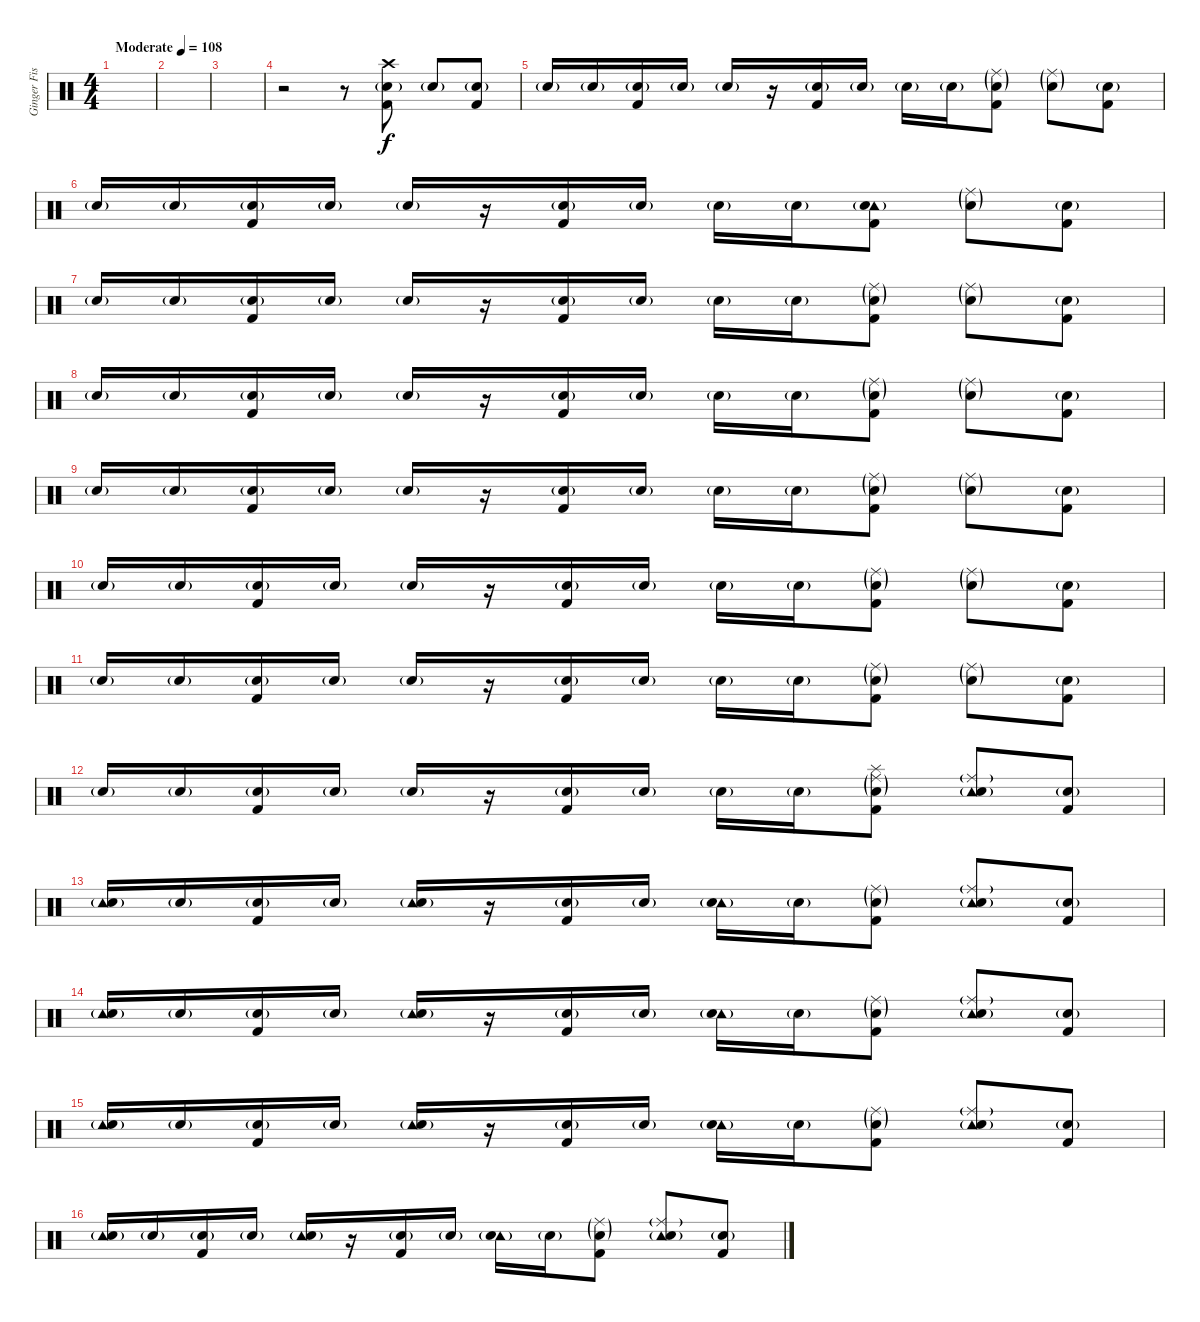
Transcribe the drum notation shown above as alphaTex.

\track ("Ginger Fish" "Ginger Fis") {instrument percussion}
\staff {score}
\articulation defaults
\ts (4 4)
\tempo (108 "Moderate")
\clef neutral
\ks c
|
|
|
r.2 r.8 ("Crash high (hit)" "Electric Snare (hit)"{g} "Kick (hit) 2").8 "Electric Snare (hit)"{g}.8 ("Snare (hit) 2"{g} "Kick (hit) 2").8 |
"Electric Snare (hit)"{g}.16 "Electric Snare (hit)"{g}.16 ("Electric Snare (hit)"{g} "Kick (hit) 2").16 "Electric Snare (hit)"{g}.16 "Electric Snare (hit)"{g}.16 r.16 ("Electric Snare (hit)"{g} "Kick (hit) 2").16 "Electric Snare (hit)"{g}.16 "Electric Snare (hit)"{g}.16 "Electric Snare (hit)"{g}.16 ("Ride (middle)"{g} "Electric Snare (hit)"{g} "Kick (hit) 2").8 ("Ride (middle)"{g} "Electric Snare (hit)"{g}).8 ("Snare (hit) 2"{g} "Kick (hit) 2").8 |
"Electric Snare (hit)"{g}.16 "Electric Snare (hit)"{g}.16 ("Electric Snare (hit)"{g} "Kick (hit) 2").16 "Electric Snare (hit)"{g}.16 "Electric Snare (hit)"{g}.16 r.16 ("Electric Snare (hit)"{g} "Kick (hit) 2").16 "Electric Snare (hit)"{g}.16 "Electric Snare (hit)"{g}.16 "Electric Snare (hit)"{g}.16 ("Tambourine (hit)"{g} "Electric Snare (hit)"{g} "Kick (hit) 2").8 ("Ride (middle)"{g} "Electric Snare (hit)"{g}).8 ("Snare (hit) 2"{g} "Kick (hit) 2").8 |
"Electric Snare (hit)"{g}.16 "Electric Snare (hit)"{g}.16 ("Electric Snare (hit)"{g} "Kick (hit) 2").16 "Electric Snare (hit)"{g}.16 "Electric Snare (hit)"{g}.16 r.16 ("Electric Snare (hit)"{g} "Kick (hit) 2").16 "Electric Snare (hit)"{g}.16 "Electric Snare (hit)"{g}.16 "Electric Snare (hit)"{g}.16 ("Ride (middle)"{g} "Electric Snare (hit)"{g} "Kick (hit) 2").8 ("Ride (middle)"{g} "Electric Snare (hit)"{g}).8 ("Snare (hit) 2"{g} "Kick (hit) 2").8 |
"Electric Snare (hit)"{g}.16 "Electric Snare (hit)"{g}.16 ("Electric Snare (hit)"{g} "Kick (hit) 2").16 "Electric Snare (hit)"{g}.16 "Electric Snare (hit)"{g}.16 r.16 ("Electric Snare (hit)"{g} "Kick (hit) 2").16 "Electric Snare (hit)"{g}.16 "Electric Snare (hit)"{g}.16 "Electric Snare (hit)"{g}.16 ("Ride (middle)"{g} "Electric Snare (hit)"{g} "Kick (hit) 2").8 ("Ride (middle)"{g} "Electric Snare (hit)"{g}).8 ("Snare (hit) 2"{g} "Kick (hit) 2").8 |
"Electric Snare (hit)"{g}.16 "Electric Snare (hit)"{g}.16 ("Electric Snare (hit)"{g} "Kick (hit) 2").16 "Electric Snare (hit)"{g}.16 "Electric Snare (hit)"{g}.16 r.16 ("Electric Snare (hit)"{g} "Kick (hit) 2").16 "Electric Snare (hit)"{g}.16 "Electric Snare (hit)"{g}.16 "Electric Snare (hit)"{g}.16 ("Ride (middle)"{g} "Electric Snare (hit)"{g} "Kick (hit) 2").8 ("Ride (middle)"{g} "Electric Snare (hit)"{g}).8 ("Snare (hit) 2"{g} "Kick (hit) 2").8 |
"Electric Snare (hit)"{g}.16 "Electric Snare (hit)"{g}.16 ("Electric Snare (hit)"{g} "Kick (hit) 2").16 "Electric Snare (hit)"{g}.16 "Electric Snare (hit)"{g}.16 r.16 ("Electric Snare (hit)"{g} "Kick (hit) 2").16 "Electric Snare (hit)"{g}.16 "Electric Snare (hit)"{g}.16 "Electric Snare (hit)"{g}.16 ("Ride (middle)"{g} "Electric Snare (hit)"{g} "Kick (hit) 2").8 ("Ride (middle)"{g} "Electric Snare (hit)"{g}).8 ("Snare (hit) 2"{g} "Kick (hit) 2").8 |
"Electric Snare (hit)"{g}.16 "Electric Snare (hit)"{g}.16 ("Electric Snare (hit)"{g} "Kick (hit) 2").16 "Electric Snare (hit)"{g}.16 "Electric Snare (hit)"{g}.16 r.16 ("Electric Snare (hit)"{g} "Kick (hit) 2").16 "Electric Snare (hit)"{g}.16 "Electric Snare (hit)"{g}.16 "Electric Snare (hit)"{g}.16 ("Ride (middle)"{g} "Electric Snare (hit)"{g} "Kick (hit) 2").8 ("Ride (middle)"{g} "Electric Snare (hit)"{g}).8 ("Snare (hit) 2"{g} "Kick (hit) 2").8 |
"Electric Snare (hit)"{g}.16 "Electric Snare (hit)"{g}.16 ("Electric Snare (hit)"{g} "Kick (hit) 2").16 "Electric Snare (hit)"{g}.16 "Electric Snare (hit)"{g}.16 r.16 ("Electric Snare (hit)"{g} "Kick (hit) 2").16 "Electric Snare (hit)"{g}.16 "Electric Snare (hit)"{g}.16 "Electric Snare (hit)"{g}.16 ("Splash (hit)" "Ride (middle)"{g} "Electric Snare (hit)"{g} "Kick (hit) 2").8 ("Tambourine (hit)" "Ride (middle)"{g} "Electric Snare (hit)"{g}).8 ("Snare (hit) 2"{g} "Kick (hit) 2").8 |
("Tambourine (hit)" "Electric Snare (hit)"{g}).16 "Electric Snare (hit)"{g}.16 ("Electric Snare (hit)"{g} "Kick (hit) 2").16 "Electric Snare (hit)"{g}.16 ("Tambourine (hit)" "Electric Snare (hit)"{g}).16 r.16 ("Electric Snare (hit)"{g} "Kick (hit) 2").16 "Electric Snare (hit)"{g}.16 ("Tambourine (hit)" "Electric Snare (hit)"{g}).16 "Electric Snare (hit)"{g}.16 ("Ride (middle)"{g} "Electric Snare (hit)"{g} "Kick (hit) 2").8 ("Tambourine (hit)" "Ride (middle)"{g} "Electric Snare (hit)"{g}).8 ("Snare (hit) 2"{g} "Kick (hit) 2").8 |
("Tambourine (hit)" "Electric Snare (hit)"{g}).16 "Electric Snare (hit)"{g}.16 ("Electric Snare (hit)"{g} "Kick (hit) 2").16 "Electric Snare (hit)"{g}.16 ("Tambourine (hit)" "Electric Snare (hit)"{g}).16 r.16 ("Electric Snare (hit)"{g} "Kick (hit) 2").16 "Electric Snare (hit)"{g}.16 ("Tambourine (hit)" "Electric Snare (hit)"{g}).16 "Electric Snare (hit)"{g}.16 ("Ride (middle)"{g} "Electric Snare (hit)"{g} "Kick (hit) 2").8 ("Tambourine (hit)" "Ride (middle)"{g} "Electric Snare (hit)"{g}).8 ("Snare (hit) 2"{g} "Kick (hit) 2").8 |
("Tambourine (hit)" "Electric Snare (hit)"{g}).16 "Electric Snare (hit)"{g}.16 ("Electric Snare (hit)"{g} "Kick (hit) 2").16 "Electric Snare (hit)"{g}.16 ("Tambourine (hit)" "Electric Snare (hit)"{g}).16 r.16 ("Electric Snare (hit)"{g} "Kick (hit) 2").16 "Electric Snare (hit)"{g}.16 ("Tambourine (hit)" "Electric Snare (hit)"{g}).16 "Electric Snare (hit)"{g}.16 ("Ride (middle)"{g} "Electric Snare (hit)"{g} "Kick (hit) 2").8 ("Tambourine (hit)" "Ride (middle)"{g} "Electric Snare (hit)"{g}).8 ("Snare (hit) 2"{g} "Kick (hit) 2").8 |
("Tambourine (hit)" "Electric Snare (hit)"{g}).16 "Electric Snare (hit)"{g}.16 ("Electric Snare (hit)"{g} "Kick (hit) 2").16 "Electric Snare (hit)"{g}.16 ("Tambourine (hit)" "Electric Snare (hit)"{g}).16 r.16 ("Electric Snare (hit)"{g} "Kick (hit) 2").16 "Electric Snare (hit)"{g}.16 ("Tambourine (hit)" "Electric Snare (hit)"{g}).16 "Electric Snare (hit)"{g}.16 ("Ride (middle)"{g} "Electric Snare (hit)"{g} "Kick (hit) 2").8 ("Tambourine (hit)" "Ride (middle)"{g} "Electric Snare (hit)"{g}).8 ("Snare (hit) 2"{g} "Kick (hit) 2").8
